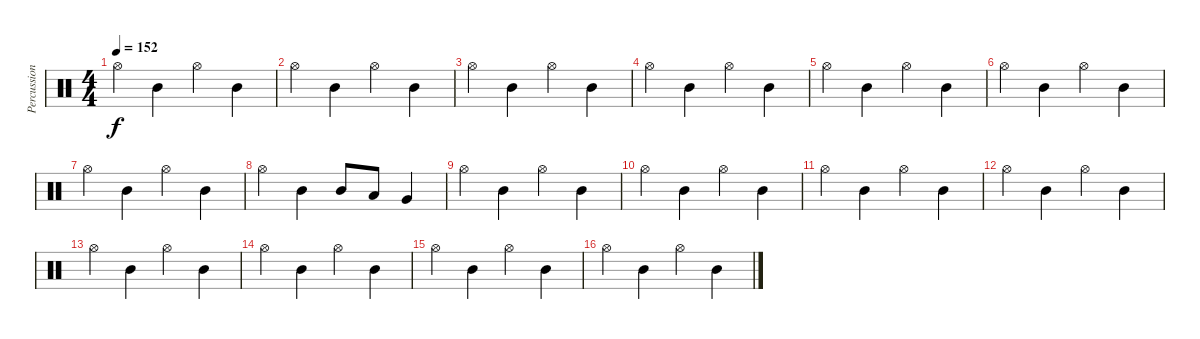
\track ("Percussion" "Percussion") {instrument percussion}
\staff {score}
\articulation defaults
\ts (4 4)
\tempo 152
\clef neutral
\ks c "Hi-Hat (open)".4{dy f} "Mid Tom (hit)".4 "Hi-Hat (open)".4 "Mid Tom (hit)".4
|
"Hi-Hat (open)".4 "Mid Tom (hit)".4 "Hi-Hat (open)".4 "Mid Tom (hit)".4 |
"Hi-Hat (open)".4 "Mid Tom (hit)".4 "Hi-Hat (open)".4 "Mid Tom (hit)".4 |
"Hi-Hat (open)".4 "Mid Tom (hit)".4 "Hi-Hat (open)".4 "Mid Tom (hit)".4 |
"Hi-Hat (open)".4 "Mid Tom (hit)".4 "Hi-Hat (open)".4 "Mid Tom (hit)".4 |
"Hi-Hat (open)".4 "Mid Tom (hit)".4 "Hi-Hat (open)".4 "Mid Tom (hit)".4 |
"Hi-Hat (open)".4 "Mid Tom (hit)".4 "Hi-Hat (open)".4 "Mid Tom (hit)".4 |
"Hi-Hat (open)".4 "Mid Tom (hit)".4 "Mid Tom (hit)".8 "Low Tom (hit)".8 "Very Low Tom (hit)".4 |
"Hi-Hat (open)".4 "Mid Tom (hit)".4 "Hi-Hat (open)".4 "Mid Tom (hit)".4 |
"Hi-Hat (open)".4 "Mid Tom (hit)".4 "Hi-Hat (open)".4 "Mid Tom (hit)".4 |
"Hi-Hat (open)".4 "Mid Tom (hit)".4 "Hi-Hat (open)".4 "Mid Tom (hit)".4 |
"Hi-Hat (open)".4 "Mid Tom (hit)".4 "Hi-Hat (open)".4 "Mid Tom (hit)".4 |
"Hi-Hat (open)".4 "Mid Tom (hit)".4 "Hi-Hat (open)".4 "Mid Tom (hit)".4 |
"Hi-Hat (open)".4 "Mid Tom (hit)".4 "Hi-Hat (open)".4 "Mid Tom (hit)".4 |
"Hi-Hat (open)".4 "Mid Tom (hit)".4 "Hi-Hat (open)".4 "Mid Tom (hit)".4 |
"Hi-Hat (open)".4 "Mid Tom (hit)".4 "Hi-Hat (open)".4 "Mid Tom (hit)".4
